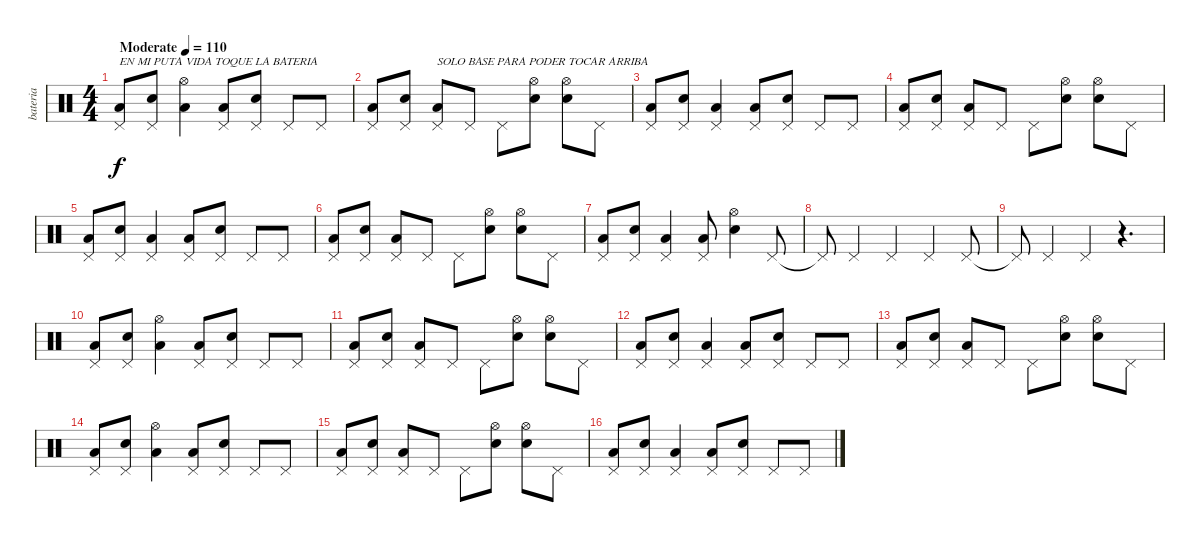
\track ("bateria" "bateria") {instrument percussion}
\staff {score}
\articulation defaults
\ts (4 4)
\tempo (110 "Moderate")
\clef neutral
\ks c
("Pedal Hi-Hat (hit)" "Low Floor Tom (hit)").8{txt "EN MI PUTA VIDA TOQUE LA BATERIA" dy f} ("Pedal Hi-Hat (hit)" "Electric Snare (hit)").8 ("Hi-Hat (open)" "Low Floor Tom (hit)").4 ("Pedal Hi-Hat (hit)" "Low Floor Tom (hit)").8 ("Pedal Hi-Hat (hit)" "Electric Snare (hit)").8 "Pedal Hi-Hat (hit)".8 "Pedal Hi-Hat (hit)".8 |
("Pedal Hi-Hat (hit)" "Low Floor Tom (hit)").8 ("Pedal Hi-Hat (hit)" "Electric Snare (hit)").8 ("Pedal Hi-Hat (hit)" "Low Floor Tom (hit)").8{txt "SOLO BASE PARA PODER TOCAR ARRIBA"} "Pedal Hi-Hat (hit)".8 "Pedal Hi-Hat (hit)".8 ("Hi-Hat (open)" "Electric Snare (hit)").8 ("Hi-Hat (open)" "Electric Snare (hit)").8 "Pedal Hi-Hat (hit)".8 |
("Pedal Hi-Hat (hit)" "Low Floor Tom (hit)").8 ("Pedal Hi-Hat (hit)" "Electric Snare (hit)").8 ("Pedal Hi-Hat (hit)" "Low Floor Tom (hit)").4 ("Pedal Hi-Hat (hit)" "Low Floor Tom (hit)").8 ("Pedal Hi-Hat (hit)" "Electric Snare (hit)").8 "Pedal Hi-Hat (hit)".8 "Pedal Hi-Hat (hit)".8 |
("Pedal Hi-Hat (hit)" "Low Floor Tom (hit)").8 ("Pedal Hi-Hat (hit)" "Electric Snare (hit)").8 ("Pedal Hi-Hat (hit)" "Low Floor Tom (hit)").8 "Pedal Hi-Hat (hit)".8 "Pedal Hi-Hat (hit)".8 ("Hi-Hat (open)" "Electric Snare (hit)").8 ("Hi-Hat (open)" "Electric Snare (hit)").8 "Pedal Hi-Hat (hit)".8 |
("Pedal Hi-Hat (hit)" "Low Floor Tom (hit)").8 ("Pedal Hi-Hat (hit)" "Electric Snare (hit)").8 ("Pedal Hi-Hat (hit)" "Low Floor Tom (hit)").4 ("Pedal Hi-Hat (hit)" "Low Floor Tom (hit)").8 ("Pedal Hi-Hat (hit)" "Electric Snare (hit)").8 "Pedal Hi-Hat (hit)".8 "Pedal Hi-Hat (hit)".8 |
("Pedal Hi-Hat (hit)" "Low Floor Tom (hit)").8 ("Pedal Hi-Hat (hit)" "Electric Snare (hit)").8 ("Pedal Hi-Hat (hit)" "Low Floor Tom (hit)").8 "Pedal Hi-Hat (hit)".8 "Pedal Hi-Hat (hit)".8 ("Hi-Hat (open)" "Electric Snare (hit)").8 ("Hi-Hat (open)" "Electric Snare (hit)").8 "Pedal Hi-Hat (hit)".8 |
("Pedal Hi-Hat (hit)" "Low Floor Tom (hit)").8 ("Pedal Hi-Hat (hit)" "Electric Snare (hit)").8 ("Pedal Hi-Hat (hit)" "Low Floor Tom (hit)").4 ("Pedal Hi-Hat (hit)" "Low Floor Tom (hit)").8 ("Hi-Hat (open)" "Electric Snare (hit)").4 "Pedal Hi-Hat (hit)".8 |
"Pedal Hi-Hat (hit)"{t}.8 "Pedal Hi-Hat (hit)".4 "Pedal Hi-Hat (hit)".4 "Pedal Hi-Hat (hit)".4 "Pedal Hi-Hat (hit)".8 |
"Pedal Hi-Hat (hit)"{t}.8 "Pedal Hi-Hat (hit)".4 "Pedal Hi-Hat (hit)".4 r.4{d} |
("Pedal Hi-Hat (hit)" "Low Floor Tom (hit)").8 ("Pedal Hi-Hat (hit)" "Electric Snare (hit)").8 ("Hi-Hat (open)" "Low Floor Tom (hit)").4 ("Pedal Hi-Hat (hit)" "Low Floor Tom (hit)").8 ("Pedal Hi-Hat (hit)" "Electric Snare (hit)").8 "Pedal Hi-Hat (hit)".8 "Pedal Hi-Hat (hit)".8 |
("Pedal Hi-Hat (hit)" "Low Floor Tom (hit)").8 ("Pedal Hi-Hat (hit)" "Electric Snare (hit)").8 ("Pedal Hi-Hat (hit)" "Low Floor Tom (hit)").8 "Pedal Hi-Hat (hit)".8 "Pedal Hi-Hat (hit)".8 ("Hi-Hat (open)" "Electric Snare (hit)").8 ("Hi-Hat (open)" "Electric Snare (hit)").8 "Pedal Hi-Hat (hit)".8 |
("Pedal Hi-Hat (hit)" "Low Floor Tom (hit)").8 ("Pedal Hi-Hat (hit)" "Electric Snare (hit)").8 ("Pedal Hi-Hat (hit)" "Low Floor Tom (hit)").4 ("Pedal Hi-Hat (hit)" "Low Floor Tom (hit)").8 ("Pedal Hi-Hat (hit)" "Electric Snare (hit)").8 "Pedal Hi-Hat (hit)".8 "Pedal Hi-Hat (hit)".8 |
("Pedal Hi-Hat (hit)" "Low Floor Tom (hit)").8 ("Pedal Hi-Hat (hit)" "Electric Snare (hit)").8 ("Pedal Hi-Hat (hit)" "Low Floor Tom (hit)").8 "Pedal Hi-Hat (hit)".8 "Pedal Hi-Hat (hit)".8 ("Hi-Hat (open)" "Electric Snare (hit)").8 ("Hi-Hat (open)" "Electric Snare (hit)").8 "Pedal Hi-Hat (hit)".8 |
("Pedal Hi-Hat (hit)" "Low Floor Tom (hit)").8 ("Pedal Hi-Hat (hit)" "Electric Snare (hit)").8 ("Hi-Hat (open)" "Low Floor Tom (hit)").4 ("Pedal Hi-Hat (hit)" "Low Floor Tom (hit)").8 ("Pedal Hi-Hat (hit)" "Electric Snare (hit)").8 "Pedal Hi-Hat (hit)".8 "Pedal Hi-Hat (hit)".8 |
("Pedal Hi-Hat (hit)" "Low Floor Tom (hit)").8 ("Pedal Hi-Hat (hit)" "Electric Snare (hit)").8 ("Pedal Hi-Hat (hit)" "Low Floor Tom (hit)").8 "Pedal Hi-Hat (hit)".8 "Pedal Hi-Hat (hit)".8 ("Hi-Hat (open)" "Electric Snare (hit)").8 ("Hi-Hat (open)" "Electric Snare (hit)").8 "Pedal Hi-Hat (hit)".8 |
("Pedal Hi-Hat (hit)" "Low Floor Tom (hit)").8 ("Pedal Hi-Hat (hit)" "Electric Snare (hit)").8 ("Pedal Hi-Hat (hit)" "Low Floor Tom (hit)").4 ("Pedal Hi-Hat (hit)" "Low Floor Tom (hit)").8 ("Pedal Hi-Hat (hit)" "Electric Snare (hit)").8 "Pedal Hi-Hat (hit)".8 "Pedal Hi-Hat (hit)".8
